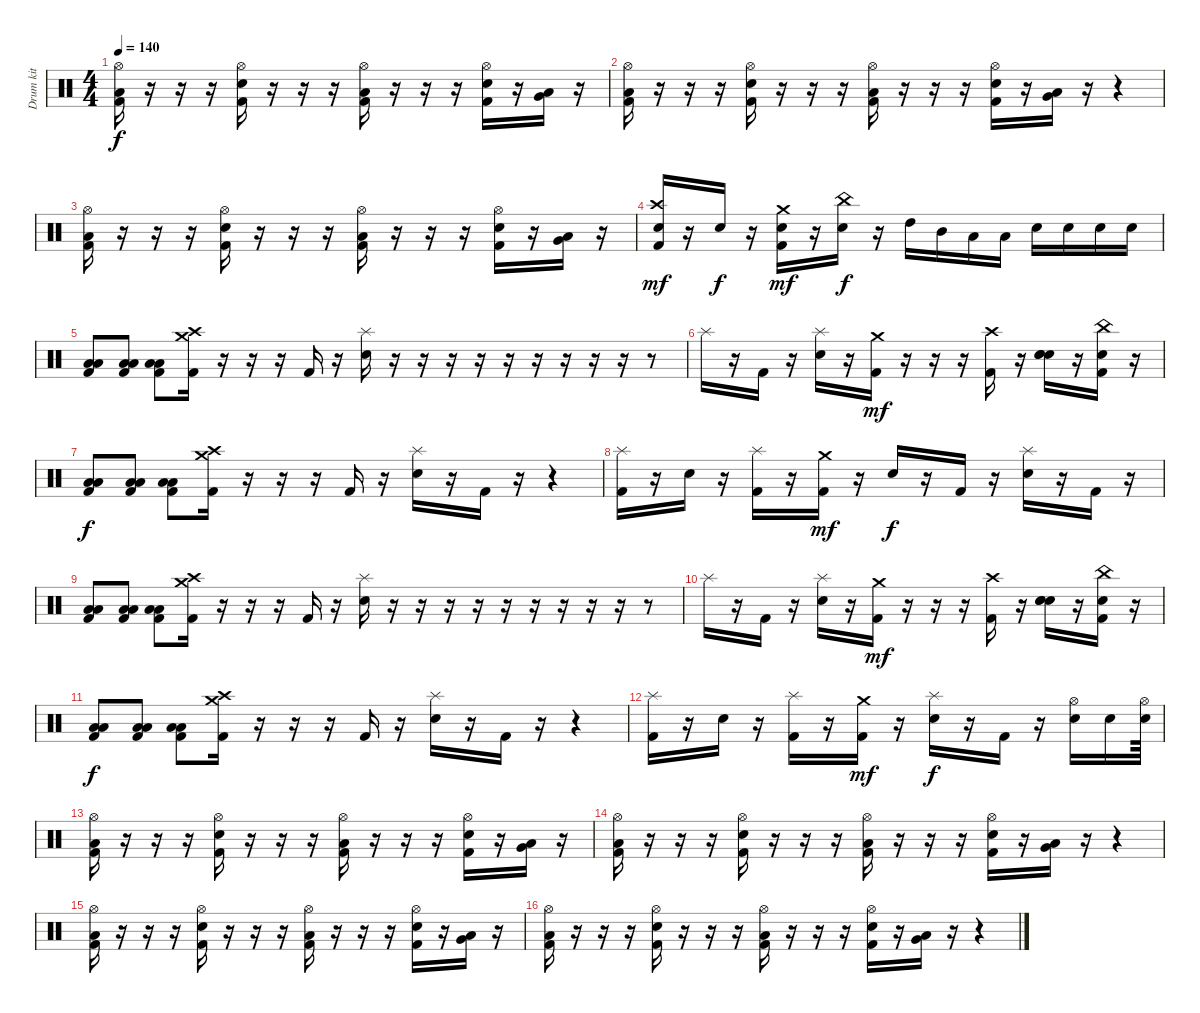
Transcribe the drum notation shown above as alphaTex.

\track ("Drum kit" "Drum kit") {solo instrument percussion}
\staff {score}
\articulation defaults
\ts (4 4)
\tempo 140
\clef neutral
\ks c
("Hi-Hat (open)" "Low Tom (hit)" "Kick (hit) 2").16{dy f} r.16 r.16 r.16 ("Hi-Hat (open)" "Electric Snare (hit)" "Kick (hit) 2").16 r.16 r.16 r.16 ("Hi-Hat (open)" "Low Tom (hit)" "Kick (hit) 2").16 r.16 r.16 r.16 ("Hi-Hat (open)" "Electric Snare (hit)" "Kick (hit) 2").16 r.16 ("Low Tom (hit)" "Very Low Tom (hit)").16 r.16 |
("Hi-Hat (open)" "Low Tom (hit)" "Kick (hit) 2").16 r.16 r.16 r.16 ("Hi-Hat (open)" "Electric Snare (hit)" "Kick (hit) 2").16 r.16 r.16 r.16 ("Hi-Hat (open)" "Low Tom (hit)" "Kick (hit) 2").16 r.16 r.16 r.16 ("Hi-Hat (open)" "Electric Snare (hit)" "Kick (hit) 2").16 r.16 ("Low Tom (hit)" "Very Low Tom (hit)").16 r.16 r.4 |
("Hi-Hat (open)" "Low Tom (hit)" "Kick (hit) 2").16 r.16 r.16 r.16 ("Hi-Hat (open)" "Electric Snare (hit)" "Kick (hit) 2").16 r.16 r.16 r.16 ("Hi-Hat (open)" "Low Tom (hit)" "Kick (hit) 2").16 r.16 r.16 r.16 ("Hi-Hat (open)" "Electric Snare (hit)" "Kick (hit) 2").16 r.16 ("Low Tom (hit)" "Very Low Tom (hit)").16 r.16 |
("Crash high (hit)" "Snare (hit)" "Kick (hit) 2").16{dy mf} r.16 "Electric Snare (hit)".16{dy f} r.16 ("Crash medium (hit)" "Snare (hit)" "Kick (hit) 2").16{dy mf} r.16 ("China (hit)" "Electric Snare (hit)").16{dy f} r.16 "High Tom (hit)".16 "Mid Tom (hit)".16 "Low Tom (hit)".16 "Low Tom (hit)".16 "Electric Snare (hit)".16 "Electric Snare (hit)".16 "Electric Snare (hit)".16 "Electric Snare (hit)".16 |
("Low Tom (hit)" "Low Floor Tom (hit)" "Kick (hit) 2").8 ("Low Tom (hit)" "Low Floor Tom (hit)" "Kick (hit) 2").8 ("Low Tom (hit)" "Low Floor Tom (hit)" "Kick (hit) 2").8 ("Crash medium (hit)" "Crash high (hit)" "Kick (hit) 2").16 r.16 r.16 r.16 "Kick (hit) 2".16 r.16 ("Splash (hit)" "Electric Snare (hit)").16 r.16 r.16 r.16 r.16 r.16 r.16 r.16 r.16 r.16 r.8 |
"Splash (hit)".16 r.16 "Kick (hit) 2".16 r.16 ("Splash (hit)" "Electric Snare (hit)").16 r.16 ("Crash medium (hit)" "Kick (hit) 2").16{dy mf} r.16 r.16 r.16 ("Crash high (hit)" "Kick (hit) 2").16 r.16 ("Snare (hit)" "Electric Snare (hit)" "Snare (hit)").16 r.16 ("China (hit)" "Snare (hit)" "Kick (hit) 2").16 r.16 |
("Low Tom (hit)" "Low Floor Tom (hit)" "Kick (hit) 2").8{dy f} ("Low Tom (hit)" "Low Floor Tom (hit)" "Kick (hit) 2").8 ("Low Tom (hit)" "Low Floor Tom (hit)" "Kick (hit) 2").8 ("Crash medium (hit)" "Crash high (hit)" "Kick (hit) 2").16 r.16 r.16 r.16 "Kick (hit) 2".16 r.16 ("Splash (hit)" "Electric Snare (hit)").16 r.16 "Kick (hit) 2".16 r.16 r.4 |
("Splash (hit)" "Kick (hit) 2").16 r.16 "Electric Snare (hit)".16 r.16 ("Splash (hit)" "Kick (hit) 2").16 r.16 ("Crash medium (hit)" "Kick (hit) 2").16{dy mf} r.16 "Snare (hit)".16{dy f} r.16 "Kick (hit) 2".16 r.16 ("Splash (hit)" "Electric Snare (hit)").16 r.16 "Kick (hit) 2".16 r.16 |
("Low Tom (hit)" "Low Floor Tom (hit)" "Kick (hit) 2").8 ("Low Tom (hit)" "Low Floor Tom (hit)" "Kick (hit) 2").8 ("Low Tom (hit)" "Low Floor Tom (hit)" "Kick (hit) 2").8 ("Crash medium (hit)" "Crash high (hit)" "Kick (hit) 2").16 r.16 r.16 r.16 "Kick (hit) 2".16 r.16 ("Splash (hit)" "Electric Snare (hit)").16 r.16 r.16 r.16 r.16 r.16 r.16 r.16 r.16 r.16 r.8 |
"Splash (hit)".16 r.16 "Kick (hit) 2".16 r.16 ("Splash (hit)" "Electric Snare (hit)").16 r.16 ("Crash medium (hit)" "Kick (hit) 2").16{dy mf} r.16 r.16 r.16 ("Crash high (hit)" "Kick (hit) 2").16 r.16 ("Snare (hit)" "Electric Snare (hit)" "Snare (hit)").16 r.16 ("China (hit)" "Snare (hit)" "Kick (hit) 2").16 r.16 |
("Low Tom (hit)" "Low Floor Tom (hit)" "Kick (hit) 2").8{dy f} ("Low Tom (hit)" "Low Floor Tom (hit)" "Kick (hit) 2").8 ("Low Tom (hit)" "Low Floor Tom (hit)" "Kick (hit) 2").8 ("Crash medium (hit)" "Crash high (hit)" "Kick (hit) 2").16 r.16 r.16 r.16 "Kick (hit) 2".16 r.16 ("Splash (hit)" "Electric Snare (hit)").16 r.16 "Kick (hit) 2".16 r.16 r.4 |
("Splash (hit)" "Kick (hit) 2").16 r.16 "Electric Snare (hit)".16 r.16 ("Splash (hit)" "Kick (hit) 2").16 r.16 ("Crash medium (hit)" "Kick (hit) 2").16{dy mf} r.16 ("Splash (hit)" "Electric Snare (hit)").16{dy f} r.16 "Kick (hit) 2".16 r.16 ("Hi-Hat (open)" "Electric Snare (hit)").16 "Snare (hit)".16 ("Hi-Hat (open)" "Electric Snare (hit)").64 |
("Hi-Hat (open)" "Low Tom (hit)" "Kick (hit) 2").16 r.16 r.16 r.16 ("Hi-Hat (open)" "Electric Snare (hit)" "Kick (hit) 2").16 r.16 r.16 r.16 ("Hi-Hat (open)" "Low Tom (hit)" "Kick (hit) 2").16 r.16 r.16 r.16 ("Hi-Hat (open)" "Electric Snare (hit)" "Kick (hit) 2").16 r.16 ("Low Tom (hit)" "Very Low Tom (hit)").16 r.16 |
("Hi-Hat (open)" "Low Tom (hit)" "Kick (hit) 2").16 r.16 r.16 r.16 ("Hi-Hat (open)" "Electric Snare (hit)" "Kick (hit) 2").16 r.16 r.16 r.16 ("Hi-Hat (open)" "Low Tom (hit)" "Kick (hit) 2").16 r.16 r.16 r.16 ("Hi-Hat (open)" "Electric Snare (hit)" "Kick (hit) 2").16 r.16 ("Low Tom (hit)" "Very Low Tom (hit)").16 r.16 r.4 |
("Hi-Hat (open)" "Low Tom (hit)" "Kick (hit) 2").16 r.16 r.16 r.16 ("Hi-Hat (open)" "Electric Snare (hit)" "Kick (hit) 2").16 r.16 r.16 r.16 ("Hi-Hat (open)" "Low Tom (hit)" "Kick (hit) 2").16 r.16 r.16 r.16 ("Hi-Hat (open)" "Electric Snare (hit)" "Kick (hit) 2").16 r.16 ("Low Tom (hit)" "Very Low Tom (hit)").16 r.16 |
("Hi-Hat (open)" "Low Tom (hit)" "Kick (hit) 2").16 r.16 r.16 r.16 ("Hi-Hat (open)" "Electric Snare (hit)" "Kick (hit) 2").16 r.16 r.16 r.16 ("Hi-Hat (open)" "Low Tom (hit)" "Kick (hit) 2").16 r.16 r.16 r.16 ("Hi-Hat (open)" "Electric Snare (hit)" "Kick (hit) 2").16 r.16 ("Low Tom (hit)" "Very Low Tom (hit)").16 r.16 r.4
